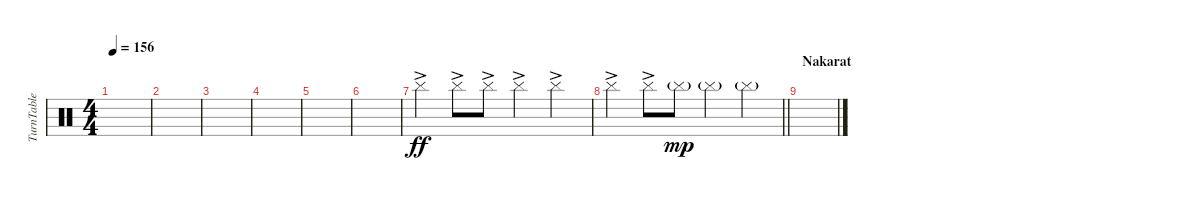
\track ("TurnTable" "TurnTable") {instrument percussion}
\staff {score}
\articulation defaults
\ts (4 4)
\tempo 156
\clef neutral
\ks c
|
|
|
|
|
|
"Cymbal (hit)"{ac}.4{dy ff} "Cymbal (hit)"{ac}.8 "Cymbal (hit)"{ac}.8 "Cymbal (hit)"{ac}.4 "Cymbal (hit)"{ac}.4 |
\barLineRight lightlight "Cymbal (hit)"{ac}.4 "Cymbal (hit)"{ac}.8 "Cymbal (hit)"{g}.8{dy mp} "Cymbal (hit)"{g}.4 "Cymbal (hit)"{g}.4
|
\section ("" "Nakarat")
